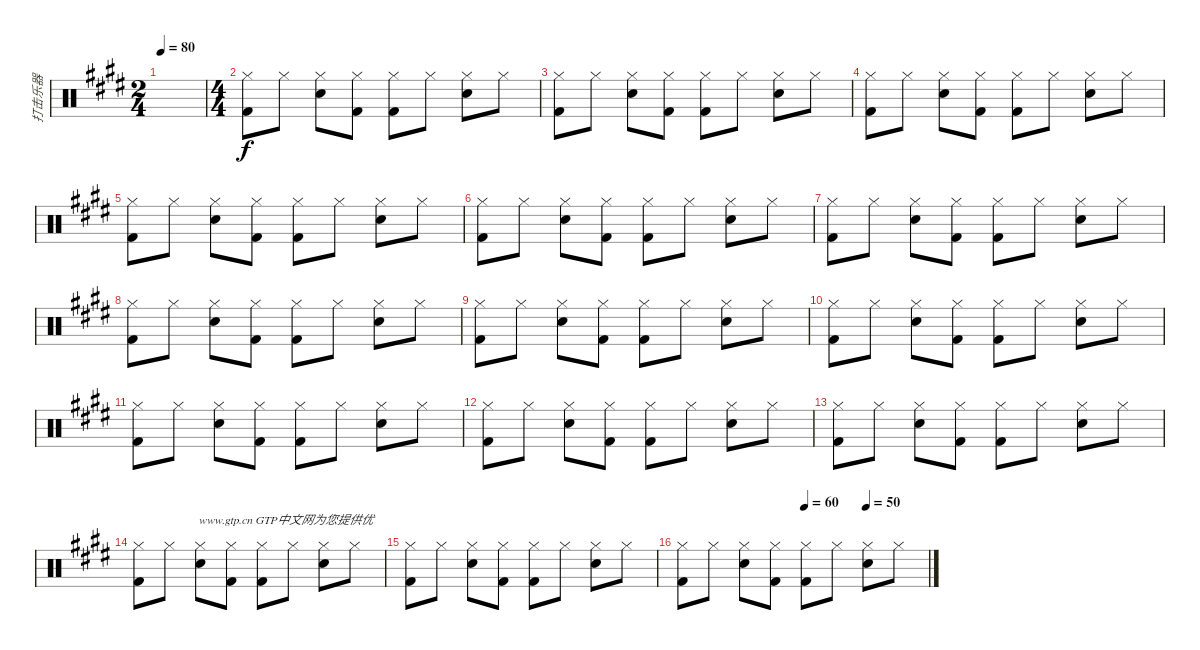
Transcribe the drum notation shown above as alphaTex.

\track ("打击乐器" "打击乐器") {instrument percussion}
\staff {score}
\articulation defaults
\ts (2 4)
\tempo 80
\clef neutral
\ks c#minor
|
\ts (4 4)
("Hi-Hat (closed)" "Kick (hit) 2").8 "Hi-Hat (closed)".8 ("Hi-Hat (closed)" "Snare (hit) 2").8 ("Hi-Hat (closed)" "Kick (hit) 2").8 ("Hi-Hat (closed)" "Kick (hit) 2").8 "Hi-Hat (closed)".8 ("Hi-Hat (closed)" "Snare (hit) 2").8 "Hi-Hat (closed)".8 |
("Hi-Hat (closed)" "Kick (hit) 2").8 "Hi-Hat (closed)".8 ("Hi-Hat (closed)" "Snare (hit) 2").8 ("Hi-Hat (closed)" "Kick (hit) 2").8 ("Hi-Hat (closed)" "Kick (hit) 2").8 "Hi-Hat (closed)".8 ("Hi-Hat (closed)" "Snare (hit) 2").8 "Hi-Hat (closed)".8 |
("Hi-Hat (closed)" "Kick (hit) 2").8 "Hi-Hat (closed)".8 ("Hi-Hat (closed)" "Snare (hit) 2").8 ("Hi-Hat (closed)" "Kick (hit) 2").8 ("Hi-Hat (closed)" "Kick (hit) 2").8 "Hi-Hat (closed)".8 ("Hi-Hat (closed)" "Snare (hit) 2").8 "Hi-Hat (closed)".8 |
("Hi-Hat (closed)" "Kick (hit) 2").8 "Hi-Hat (closed)".8 ("Hi-Hat (closed)" "Snare (hit) 2").8 ("Hi-Hat (closed)" "Kick (hit) 2").8 ("Hi-Hat (closed)" "Kick (hit) 2").8 "Hi-Hat (closed)".8 ("Hi-Hat (closed)" "Snare (hit) 2").8 "Hi-Hat (closed)".8 |
("Hi-Hat (closed)" "Kick (hit) 2").8 "Hi-Hat (closed)".8 ("Hi-Hat (closed)" "Snare (hit) 2").8 ("Hi-Hat (closed)" "Kick (hit) 2").8 ("Hi-Hat (closed)" "Kick (hit) 2").8 "Hi-Hat (closed)".8 ("Hi-Hat (closed)" "Snare (hit) 2").8 "Hi-Hat (closed)".8 |
("Hi-Hat (closed)" "Kick (hit) 2").8 "Hi-Hat (closed)".8 ("Hi-Hat (closed)" "Snare (hit) 2").8 ("Hi-Hat (closed)" "Kick (hit) 2").8 ("Hi-Hat (closed)" "Kick (hit) 2").8 "Hi-Hat (closed)".8 ("Hi-Hat (closed)" "Snare (hit) 2").8 "Hi-Hat (closed)".8 |
("Hi-Hat (closed)" "Kick (hit) 2").8 "Hi-Hat (closed)".8 ("Hi-Hat (closed)" "Snare (hit) 2").8 ("Hi-Hat (closed)" "Kick (hit) 2").8 ("Hi-Hat (closed)" "Kick (hit) 2").8 "Hi-Hat (closed)".8 ("Hi-Hat (closed)" "Snare (hit) 2").8 "Hi-Hat (closed)".8 |
("Hi-Hat (closed)" "Kick (hit) 2").8 "Hi-Hat (closed)".8 ("Hi-Hat (closed)" "Snare (hit) 2").8 ("Hi-Hat (closed)" "Kick (hit) 2").8 ("Hi-Hat (closed)" "Kick (hit) 2").8 "Hi-Hat (closed)".8 ("Hi-Hat (closed)" "Snare (hit) 2").8 "Hi-Hat (closed)".8 |
("Hi-Hat (closed)" "Kick (hit) 2").8 "Hi-Hat (closed)".8 ("Hi-Hat (closed)" "Snare (hit) 2").8 ("Hi-Hat (closed)" "Kick (hit) 2").8 ("Hi-Hat (closed)" "Kick (hit) 2").8 "Hi-Hat (closed)".8 ("Hi-Hat (closed)" "Snare (hit) 2").8 "Hi-Hat (closed)".8 |
("Hi-Hat (closed)" "Kick (hit) 2").8 "Hi-Hat (closed)".8 ("Hi-Hat (closed)" "Snare (hit) 2").8 ("Hi-Hat (closed)" "Kick (hit) 2").8 ("Hi-Hat (closed)" "Kick (hit) 2").8 "Hi-Hat (closed)".8 ("Hi-Hat (closed)" "Snare (hit) 2").8 "Hi-Hat (closed)".8 |
("Hi-Hat (closed)" "Kick (hit) 2").8 "Hi-Hat (closed)".8 ("Hi-Hat (closed)" "Snare (hit) 2").8 ("Hi-Hat (closed)" "Kick (hit) 2").8 ("Hi-Hat (closed)" "Kick (hit) 2").8 "Hi-Hat (closed)".8 ("Hi-Hat (closed)" "Snare (hit) 2").8 "Hi-Hat (closed)".8 |
("Hi-Hat (closed)" "Kick (hit) 2").8 "Hi-Hat (closed)".8 ("Hi-Hat (closed)" "Snare (hit) 2").8 ("Hi-Hat (closed)" "Kick (hit) 2").8 ("Hi-Hat (closed)" "Kick (hit) 2").8 "Hi-Hat (closed)".8 ("Hi-Hat (closed)" "Snare (hit) 2").8 "Hi-Hat (closed)".8 |
("Hi-Hat (closed)" "Kick (hit) 2").8{txt "                    www.gtp.cn GTP中文网为您提供优"} "Hi-Hat (closed)".8 ("Hi-Hat (closed)" "Snare (hit) 2").8 ("Hi-Hat (closed)" "Kick (hit) 2").8 ("Hi-Hat (closed)" "Kick (hit) 2").8 "Hi-Hat (closed)".8 ("Hi-Hat (closed)" "Snare (hit) 2").8 "Hi-Hat (closed)".8 |
("Hi-Hat (closed)" "Kick (hit) 2").8 "Hi-Hat (closed)".8 ("Hi-Hat (closed)" "Snare (hit) 2").8 ("Hi-Hat (closed)" "Kick (hit) 2").8 ("Hi-Hat (closed)" "Kick (hit) 2").8 "Hi-Hat (closed)".8 ("Hi-Hat (closed)" "Snare (hit) 2").8 "Hi-Hat (closed)".8 |
\tempo (60 0.5)
\tempo (50 0.75)
("Hi-Hat (closed)" "Kick (hit) 2").8 "Hi-Hat (closed)".8 ("Hi-Hat (closed)" "Snare (hit) 2").8 ("Hi-Hat (closed)" "Kick (hit) 2").8 ("Hi-Hat (closed)" "Kick (hit) 2").8 "Hi-Hat (closed)".8 ("Hi-Hat (closed)" "Snare (hit) 2").8 "Hi-Hat (closed)".8
